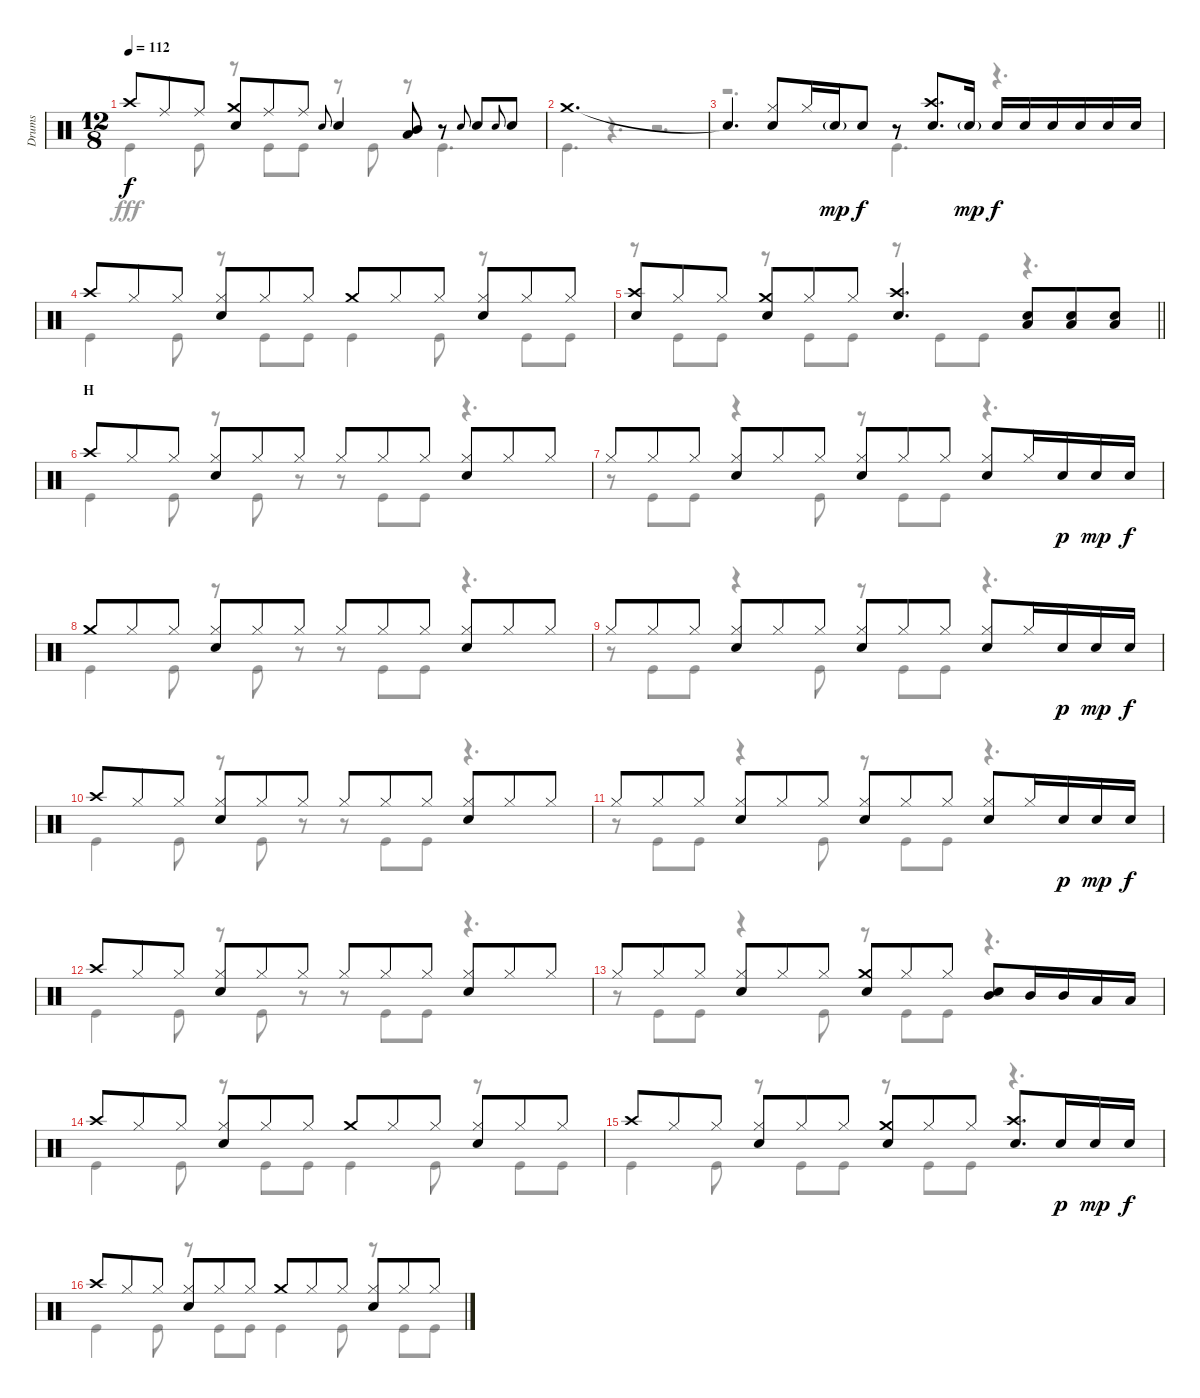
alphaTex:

\track ("Drums" "Drums") {instrument percussion}
\staff {score}
\articulation defaults
\voice
\ts (12 8)
\tempo 112
\clef neutral
\ks c "Crash high (hit)".8{dy f} "Ride (middle)".8 "Ride (middle)".8
("Crash medium (hit)" "Snare (hit) 2").8 "Ride (middle)".8 "Ride (middle)".8 "Snare (hit) 2".8{gr onbeat} "Snare (hit) 2".4 ("Mid Tom (hit)" "Low Tom (hit)").8 r.8 "Snare (hit) 2".8{gr onbeat} "Snare (hit) 2".8 "Snare (hit) 2".8{gr onbeat} "Snare (hit) 2".8 |
"Crash medium (hit)".1{d} |
"Snare (hit)"{t}.4{d} ("Hi-Hat (closed)" "Snare (hit) 2").8 "Hi-Hat (closed)".16 "Snare (hit) 2"{g}.16{dy mp} "Snare (hit) 2".8{dy f} r.8 ("Crash high (hit)" "Snare (hit) 2").8{d} "Snare (hit) 2"{g}.16{dy mp} "Snare (hit) 2".16{dy f} "Snare (hit) 2".16 "Snare (hit) 2".16 "Snare (hit) 2".16 "Snare (hit) 2".16 "Snare (hit) 2".16 |
"Crash high (hit)".8 "Hi-Hat (closed)".8 "Hi-Hat (closed)".8 ("Hi-Hat (closed)" "Snare (hit) 2").8 "Hi-Hat (closed)".8 "Hi-Hat (closed)".8 "Crash medium (hit)".8 "Hi-Hat (closed)".8 "Hi-Hat (closed)".8 ("Hi-Hat (closed)" "Snare (hit) 2").8 "Hi-Hat (closed)".8 "Hi-Hat (closed)".8 |
\barLineRight lightlight
("Crash high (hit)" "Snare (hit) 2").8 "Hi-Hat (closed)".8 "Hi-Hat (closed)".8 ("Crash medium (hit)" "Snare (hit) 2").8 "Hi-Hat (closed)".8 "Hi-Hat (closed)".8 ("Crash high (hit)" "Snare (hit) 2").4{d} ("Snare (hit) 2" "Low Tom (hit)").8 ("Snare (hit) 2" "Low Tom (hit)").8 ("Snare (hit) 2" "Low Tom (hit)").8 |
\section ("" "H")
"Crash high (hit)".8 "Hi-Hat (closed)".8 "Hi-Hat (closed)".8 ("Hi-Hat (closed)" "Snare (hit) 2").8 "Hi-Hat (closed)".8 "Hi-Hat (closed)".8 "Hi-Hat (closed)".8 "Hi-Hat (closed)".8 "Hi-Hat (closed)".8 ("Hi-Hat (closed)" "Snare (hit) 2").8 "Hi-Hat (closed)".8 "Hi-Hat (closed)".8 |
"Hi-Hat (closed)".8 "Hi-Hat (closed)".8 "Hi-Hat (closed)".8 ("Hi-Hat (closed)" "Snare (hit) 2").8 "Hi-Hat (closed)".8 "Hi-Hat (closed)".8 ("Hi-Hat (closed)" "Snare (hit) 2").8 "Hi-Hat (closed)".8 "Hi-Hat (closed)".8 ("Hi-Hat (closed)" "Snare (hit) 2").8 "Hi-Hat (closed)".16 "Snare (hit) 2".16{dy p} "Snare (hit) 2".16{dy mp} "Snare (hit) 2".16{dy f} |
"Crash medium (hit)".8 "Hi-Hat (closed)".8 "Hi-Hat (closed)".8 ("Hi-Hat (closed)" "Snare (hit) 2").8 "Hi-Hat (closed)".8 "Hi-Hat (closed)".8 "Hi-Hat (closed)".8 "Hi-Hat (closed)".8 "Hi-Hat (closed)".8 ("Hi-Hat (closed)" "Snare (hit) 2").8 "Hi-Hat (closed)".8 "Hi-Hat (closed)".8 |
"Hi-Hat (closed)".8 "Hi-Hat (closed)".8 "Hi-Hat (closed)".8 ("Hi-Hat (closed)" "Snare (hit) 2").8 "Hi-Hat (closed)".8 "Hi-Hat (closed)".8 ("Hi-Hat (closed)" "Snare (hit) 2").8 "Hi-Hat (closed)".8 "Hi-Hat (closed)".8 ("Hi-Hat (closed)" "Snare (hit) 2").8 "Hi-Hat (closed)".16 "Snare (hit) 2".16{dy p} "Snare (hit) 2".16{dy mp} "Snare (hit) 2".16{dy f} |
"Crash high (hit)".8 "Hi-Hat (closed)".8 "Hi-Hat (closed)".8 ("Hi-Hat (closed)" "Snare (hit) 2").8 "Hi-Hat (closed)".8 "Hi-Hat (closed)".8 "Hi-Hat (closed)".8 "Hi-Hat (closed)".8 "Hi-Hat (closed)".8 ("Hi-Hat (closed)" "Snare (hit) 2").8 "Hi-Hat (closed)".8 "Hi-Hat (closed)".8 |
"Hi-Hat (closed)".8 "Hi-Hat (closed)".8 "Hi-Hat (closed)".8 ("Hi-Hat (closed)" "Snare (hit) 2").8 "Hi-Hat (closed)".8 "Hi-Hat (closed)".8 ("Hi-Hat (closed)" "Snare (hit) 2").8 "Hi-Hat (closed)".8 "Hi-Hat (closed)".8 ("Hi-Hat (closed)" "Snare (hit) 2").8 "Hi-Hat (closed)".16 "Snare (hit) 2".16{dy p} "Snare (hit) 2".16{dy mp} "Snare (hit) 2".16{dy f} |
"Crash high (hit)".8 "Hi-Hat (closed)".8 "Hi-Hat (closed)".8 ("Hi-Hat (closed)" "Snare (hit) 2").8 "Hi-Hat (closed)".8 "Hi-Hat (closed)".8 "Hi-Hat (closed)".8 "Hi-Hat (closed)".8 "Hi-Hat (closed)".8 ("Hi-Hat (closed)" "Snare (hit) 2").8 "Hi-Hat (closed)".8 "Hi-Hat (closed)".8 |
"Hi-Hat (closed)".8 "Hi-Hat (closed)".8 "Hi-Hat (closed)".8 ("Hi-Hat (closed)" "Snare (hit) 2").8 "Hi-Hat (closed)".8 "Hi-Hat (closed)".8 ("Crash medium (hit)" "Snare (hit) 2").8 "Hi-Hat (closed)".8 "Hi-Hat (closed)".8 ("Mid Tom (hit)" "Snare (hit) 2").8 "Mid Tom (hit)".16 "Mid Tom (hit)".16 "Low Tom (hit)".16 "Low Tom (hit)".16 |
"Crash high (hit)".8 "Hi-Hat (closed)".8 "Hi-Hat (closed)".8 ("Hi-Hat (closed)" "Snare (hit) 2").8 "Hi-Hat (closed)".8 "Hi-Hat (closed)".8 "Crash medium (hit)".8 "Hi-Hat (closed)".8 "Hi-Hat (closed)".8 ("Hi-Hat (closed)" "Snare (hit) 2").8 "Hi-Hat (closed)".8 "Hi-Hat (closed)".8 |
"Crash high (hit)".8 "Hi-Hat (closed)".8 "Hi-Hat (closed)".8 ("Hi-Hat (closed)" "Snare (hit) 2").8 "Hi-Hat (closed)".8 "Hi-Hat (closed)".8 ("Crash medium (hit)" "Snare (hit) 2").8 "Hi-Hat (closed)".8 "Hi-Hat (closed)".8 ("Crash high (hit)" "Snare (hit) 2").8{d} "Snare (hit) 2".16{dy p} "Snare (hit) 2".16{dy mp} "Snare (hit) 2".16{dy f} |
"Crash high (hit)".8 "Hi-Hat (closed)".8 "Hi-Hat (closed)".8 ("Hi-Hat (closed)" "Snare (hit) 2").8 "Hi-Hat (closed)".8 "Hi-Hat (closed)".8 "Crash medium (hit)".8 "Hi-Hat (closed)".8 "Hi-Hat (closed)".8 ("Hi-Hat (closed)" "Snare (hit) 2").8 "Hi-Hat (closed)".8 "Hi-Hat (closed)".8
\voice
\clef neutral
\ottava regular
\simile none
\ks c "Kick (hit)".4{dy fff} "Kick (hit)".8
r.8 "Kick (hit)".8 "Kick (hit)".8 r.8 "Kick (hit)".8 r.8 "Kick (hit)".4{d} |
"Kick (hit)".4{d} r.4{d} r.2{d} |
r.2{d} "Kick (hit)".4{d} r.4{d} |
"Kick (hit)".4 "Kick (hit)".8 r.8 "Kick (hit)".8 "Kick (hit)".8 "Kick (hit)".4 "Kick (hit)".8 r.8 "Kick (hit)".8 "Kick (hit)".8 |
\barLineRight lightlight
r.8 "Kick (hit)".8 "Kick (hit)".8 r.8 "Kick (hit)".8 "Kick (hit)".8 r.8 "Kick (hit)".8 "Kick (hit)".8 r.4{d} |
"Kick (hit)".4 "Kick (hit)".8 r.8 "Kick (hit)".8 r.8 r.8 "Kick (hit)".8 "Kick (hit)".8 r.4{d} |
r.8 "Kick (hit)".8 "Kick (hit)".8 r.4 "Kick (hit)".8 r.8 "Kick (hit)".8 "Kick (hit)".8 r.4{d} |
"Kick (hit)".4 "Kick (hit)".8 r.8 "Kick (hit)".8 r.8 r.8 "Kick (hit)".8 "Kick (hit)".8 r.4{d} |
r.8 "Kick (hit)".8 "Kick (hit)".8 r.4 "Kick (hit)".8 r.8 "Kick (hit)".8 "Kick (hit)".8 r.4{d} |
"Kick (hit)".4 "Kick (hit)".8 r.8 "Kick (hit)".8 r.8 r.8 "Kick (hit)".8 "Kick (hit)".8 r.4{d} |
r.8 "Kick (hit)".8 "Kick (hit)".8 r.4 "Kick (hit)".8 r.8 "Kick (hit)".8 "Kick (hit)".8 r.4{d} |
"Kick (hit)".4 "Kick (hit)".8 r.8 "Kick (hit)".8 r.8 r.8 "Kick (hit)".8 "Kick (hit)".8 r.4{d} |
r.8 "Kick (hit)".8 "Kick (hit)".8 r.4 "Kick (hit)".8 r.8 "Kick (hit)".8 "Kick (hit)".8 r.4{d} |
"Kick (hit)".4 "Kick (hit)".8 r.8 "Kick (hit)".8 "Kick (hit)".8 "Kick (hit)".4 "Kick (hit)".8 r.8 "Kick (hit)".8 "Kick (hit)".8 |
"Kick (hit)".4 "Kick (hit)".8 r.8 "Kick (hit)".8 "Kick (hit)".8 r.8 "Kick (hit)".8 "Kick (hit)".8 r.4{d} |
"Kick (hit)".4 "Kick (hit)".8 r.8 "Kick (hit)".8 "Kick (hit)".8 "Kick (hit)".4 "Kick (hit)".8 r.8 "Kick (hit)".8 "Kick (hit)".8
